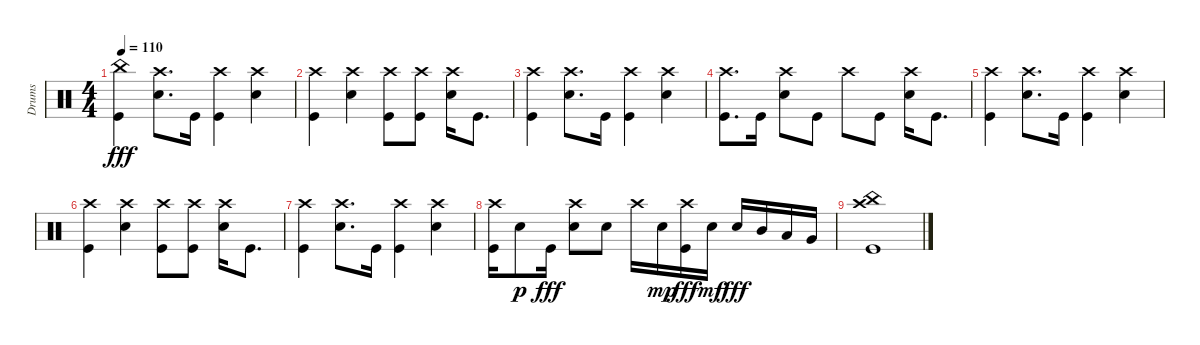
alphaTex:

\track ("Drums" "Drums") {instrument percussion}
\staff {score}
\articulation defaults
\ts (4 4)
\tempo 110
\clef neutral
\ks c
("China (hit)" "Kick (hit)").4{dy fff} ("Crash high (hit)" "Snare (hit) 2").8{d} "Kick (hit)".16 ("Crash high (hit)" "Kick (hit)").4 ("Crash high (hit)" "Snare (hit) 2").4 |
("Crash high (hit)" "Kick (hit)").4 ("Crash high (hit)" "Snare (hit) 2").4 ("Crash high (hit)" "Kick (hit)").8 ("Crash high (hit)" "Kick (hit)").8 ("Crash high (hit)" "Snare (hit) 2").16 "Kick (hit)".8{d} |
("Crash high (hit)" "Kick (hit)").4 ("Crash high (hit)" "Snare (hit) 2").8{d} "Kick (hit)".16 ("Crash high (hit)" "Kick (hit)").4 ("Crash high (hit)" "Snare (hit) 2").4 |
("Crash high (hit)" "Kick (hit)").8{d} "Kick (hit)".16 ("Crash high (hit)" "Snare (hit) 2").8 "Kick (hit)".8 "Crash high (hit)".8 "Kick (hit)".8 ("Crash high (hit)" "Snare (hit) 2").16 "Kick (hit)".8{d} |
("Crash high (hit)" "Kick (hit)").4 ("Crash high (hit)" "Snare (hit) 2").8{d} "Kick (hit)".16 ("Crash high (hit)" "Kick (hit)").4 ("Crash high (hit)" "Snare (hit) 2").4 |
("Crash high (hit)" "Kick (hit)").4 ("Crash high (hit)" "Snare (hit) 2").4 ("Crash high (hit)" "Kick (hit)").8 ("Crash high (hit)" "Kick (hit)").8 ("Crash high (hit)" "Snare (hit) 2").16 "Kick (hit)".8{d} |
("Crash high (hit)" "Kick (hit)").4 ("Crash high (hit)" "Snare (hit) 2").8{d} "Kick (hit)".16 ("Crash high (hit)" "Kick (hit)").4 ("Crash high (hit)" "Snare (hit) 2").4 |
("Crash high (hit)" "Kick (hit)").16 "Snare (hit) 2".8{dy p} "Kick (hit)".16{dy fff} ("Crash high (hit)" "Snare (hit) 2").8 "Snare (hit) 2".8 "Crash high (hit)".16 "Snare (hit) 2".16{dy mp} ("Crash high (hit)" "Kick (hit)").16{dy fff} "Snare (hit) 2".16{dy mf} "Snare (hit) 2".16{dy fff} "Mid Tom (hit)".16 "Low Tom (hit)".16 "Very Low Tom (hit)".16 |
("China (hit)" "Crash high (hit)" "Kick (hit)").1
